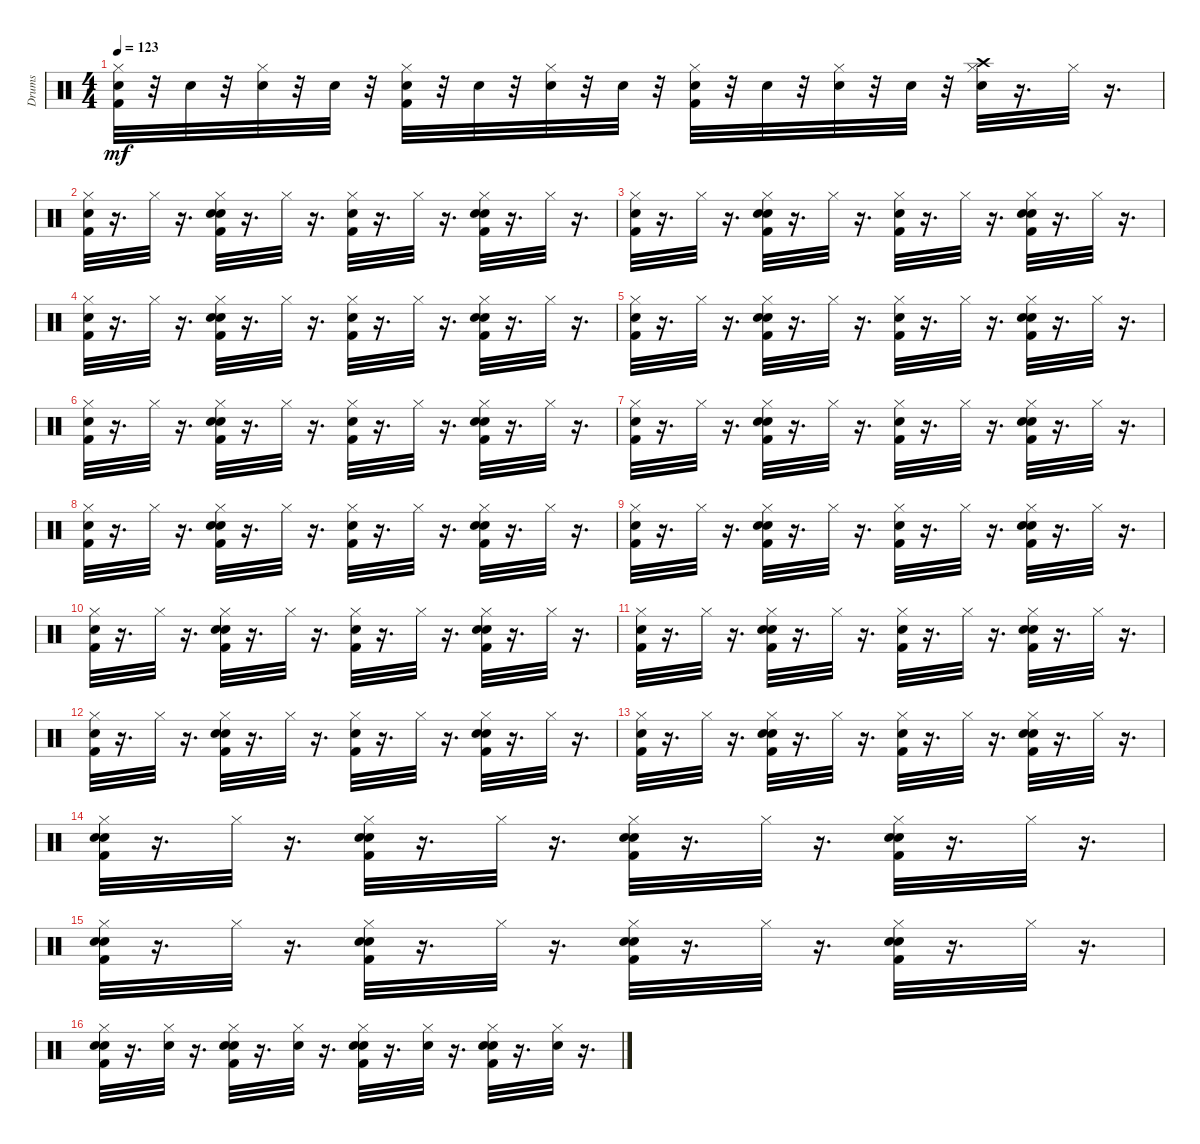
\track ("Drums" "Drums") {instrument percussion}
\staff {score}
\articulation defaults
\ts (4 4)
\tempo 123
\clef neutral
\ks c
("Kick (hit) 2" "Electric Snare (hit)" "Hi-Hat (closed)").32{dy mf} r.32 "Snare (hit) 2".32 r.32 ("Electric Snare (hit)" "Hi-Hat (closed)").32 r.32 "Snare (hit) 2".32 r.32 ("Kick (hit) 2" "Electric Snare (hit)" "Hi-Hat (closed)").32 r.32 "Snare (hit) 2".32 r.32 ("Electric Snare (hit)" "Hi-Hat (closed)").32 r.32 "Snare (hit) 2".32 r.32 ("Kick (hit) 2" "Electric Snare (hit)" "Hi-Hat (closed)").32 r.32 "Snare (hit) 2".32 r.32 ("Electric Snare (hit)" "Hi-Hat (closed)").32 r.32 "Snare (hit) 2".32 r.32 ("Hand Clap (hit)" "Hi-Hat (closed)" "Crash high (hit)").32 r.16{d} "Hi-Hat (closed)".32 r.16{d} |
("Kick (hit) 2" "Hand Clap (hit)" "Hi-Hat (closed)").32 r.16{d} "Hi-Hat (closed)".32 r.16{d} ("Kick (hit) 2" "Snare (hit) 2" "Hand Clap (hit)" "Hi-Hat (closed)").32 r.16{d} "Hi-Hat (closed)".32 r.16{d} ("Kick (hit) 2" "Hand Clap (hit)" "Hi-Hat (closed)").32 r.16{d} "Hi-Hat (closed)".32 r.16{d} ("Kick (hit) 2" "Snare (hit) 2" "Hand Clap (hit)" "Hi-Hat (closed)").32 r.16{d} "Hi-Hat (closed)".32 r.16{d} |
("Kick (hit) 2" "Hand Clap (hit)" "Hi-Hat (closed)").32 r.16{d} "Hi-Hat (closed)".32 r.16{d} ("Kick (hit) 2" "Snare (hit) 2" "Hand Clap (hit)" "Hi-Hat (closed)").32 r.16{d} "Hi-Hat (closed)".32 r.16{d} ("Kick (hit) 2" "Hand Clap (hit)" "Hi-Hat (closed)").32 r.16{d} "Hi-Hat (closed)".32 r.16{d} ("Kick (hit) 2" "Snare (hit) 2" "Hand Clap (hit)" "Hi-Hat (closed)").32 r.16{d} "Hi-Hat (closed)".32 r.16{d} |
("Kick (hit) 2" "Hand Clap (hit)" "Hi-Hat (closed)").32 r.16{d} "Hi-Hat (closed)".32 r.16{d} ("Kick (hit) 2" "Snare (hit) 2" "Hand Clap (hit)" "Hi-Hat (closed)").32 r.16{d} "Hi-Hat (closed)".32 r.16{d} ("Kick (hit) 2" "Hand Clap (hit)" "Hi-Hat (closed)").32 r.16{d} "Hi-Hat (closed)".32 r.16{d} ("Kick (hit) 2" "Snare (hit) 2" "Hand Clap (hit)" "Hi-Hat (closed)").32 r.16{d} "Hi-Hat (closed)".32 r.16{d} |
("Kick (hit) 2" "Hand Clap (hit)" "Hi-Hat (closed)").32 r.16{d} "Hi-Hat (closed)".32 r.16{d} ("Kick (hit) 2" "Snare (hit) 2" "Hand Clap (hit)" "Hi-Hat (closed)").32 r.16{d} "Hi-Hat (closed)".32 r.16{d} ("Kick (hit) 2" "Hand Clap (hit)" "Hi-Hat (closed)").32 r.16{d} "Hi-Hat (closed)".32 r.16{d} ("Kick (hit) 2" "Snare (hit) 2" "Hand Clap (hit)" "Hi-Hat (closed)").32 r.16{d} "Hi-Hat (closed)".32 r.16{d} |
("Kick (hit) 2" "Hand Clap (hit)" "Hi-Hat (closed)").32 r.16{d} "Hi-Hat (closed)".32 r.16{d} ("Kick (hit) 2" "Snare (hit) 2" "Hand Clap (hit)" "Hi-Hat (closed)").32 r.16{d} "Hi-Hat (closed)".32 r.16{d} ("Kick (hit) 2" "Hand Clap (hit)" "Hi-Hat (closed)").32 r.16{d} "Hi-Hat (closed)".32 r.16{d} ("Kick (hit) 2" "Snare (hit) 2" "Hand Clap (hit)" "Hi-Hat (closed)").32 r.16{d} "Hi-Hat (closed)".32 r.16{d} |
("Kick (hit) 2" "Hand Clap (hit)" "Hi-Hat (closed)").32 r.16{d} "Hi-Hat (closed)".32 r.16{d} ("Kick (hit) 2" "Snare (hit) 2" "Hand Clap (hit)" "Hi-Hat (closed)").32 r.16{d} "Hi-Hat (closed)".32 r.16{d} ("Kick (hit) 2" "Hand Clap (hit)" "Hi-Hat (closed)").32 r.16{d} "Hi-Hat (closed)".32 r.16{d} ("Kick (hit) 2" "Snare (hit) 2" "Hand Clap (hit)" "Hi-Hat (closed)").32 r.16{d} "Hi-Hat (closed)".32 r.16{d} |
("Kick (hit) 2" "Hand Clap (hit)" "Hi-Hat (closed)").32 r.16{d} "Hi-Hat (closed)".32 r.16{d} ("Kick (hit) 2" "Snare (hit) 2" "Hand Clap (hit)" "Hi-Hat (closed)").32 r.16{d} "Hi-Hat (closed)".32 r.16{d} ("Kick (hit) 2" "Hand Clap (hit)" "Hi-Hat (closed)").32 r.16{d} "Hi-Hat (closed)".32 r.16{d} ("Kick (hit) 2" "Snare (hit) 2" "Hand Clap (hit)" "Hi-Hat (closed)").32 r.16{d} "Hi-Hat (closed)".32 r.16{d} |
("Kick (hit) 2" "Hand Clap (hit)" "Hi-Hat (closed)").32 r.16{d} "Hi-Hat (closed)".32 r.16{d} ("Kick (hit) 2" "Snare (hit) 2" "Hand Clap (hit)" "Hi-Hat (closed)").32 r.16{d} "Hi-Hat (closed)".32 r.16{d} ("Kick (hit) 2" "Hand Clap (hit)" "Hi-Hat (closed)").32 r.16{d} "Hi-Hat (closed)".32 r.16{d} ("Kick (hit) 2" "Snare (hit) 2" "Hand Clap (hit)" "Hi-Hat (closed)").32 r.16{d} "Hi-Hat (closed)".32 r.16{d} |
("Kick (hit) 2" "Hand Clap (hit)" "Hi-Hat (closed)").32 r.16{d} "Hi-Hat (closed)".32 r.16{d} ("Kick (hit) 2" "Snare (hit) 2" "Hand Clap (hit)" "Hi-Hat (closed)").32 r.16{d} "Hi-Hat (closed)".32 r.16{d} ("Kick (hit) 2" "Hand Clap (hit)" "Hi-Hat (closed)").32 r.16{d} "Hi-Hat (closed)".32 r.16{d} ("Kick (hit) 2" "Snare (hit) 2" "Hand Clap (hit)" "Hi-Hat (closed)").32 r.16{d} "Hi-Hat (closed)".32 r.16{d} |
("Kick (hit) 2" "Hand Clap (hit)" "Hi-Hat (closed)").32 r.16{d} "Hi-Hat (closed)".32 r.16{d} ("Kick (hit) 2" "Snare (hit) 2" "Hand Clap (hit)" "Hi-Hat (closed)").32 r.16{d} "Hi-Hat (closed)".32 r.16{d} ("Kick (hit) 2" "Hand Clap (hit)" "Hi-Hat (closed)").32 r.16{d} "Hi-Hat (closed)".32 r.16{d} ("Kick (hit) 2" "Snare (hit) 2" "Hand Clap (hit)" "Hi-Hat (closed)").32 r.16{d} "Hi-Hat (closed)".32 r.16{d} |
("Kick (hit) 2" "Hand Clap (hit)" "Hi-Hat (closed)").32 r.16{d} "Hi-Hat (closed)".32 r.16{d} ("Kick (hit) 2" "Snare (hit) 2" "Hand Clap (hit)" "Hi-Hat (closed)").32 r.16{d} "Hi-Hat (closed)".32 r.16{d} ("Kick (hit) 2" "Hand Clap (hit)" "Hi-Hat (closed)").32 r.16{d} "Hi-Hat (closed)".32 r.16{d} ("Kick (hit) 2" "Snare (hit) 2" "Hand Clap (hit)" "Hi-Hat (closed)").32 r.16{d} "Hi-Hat (closed)".32 r.16{d} |
("Kick (hit) 2" "Hand Clap (hit)" "Hi-Hat (closed)").32 r.16{d} "Hi-Hat (closed)".32 r.16{d} ("Kick (hit) 2" "Snare (hit) 2" "Hand Clap (hit)" "Hi-Hat (closed)").32 r.16{d} "Hi-Hat (closed)".32 r.16{d} ("Kick (hit) 2" "Hand Clap (hit)" "Hi-Hat (closed)").32 r.16{d} "Hi-Hat (closed)".32 r.16{d} ("Kick (hit) 2" "Snare (hit) 2" "Hand Clap (hit)" "Hi-Hat (closed)").32 r.16{d} "Hi-Hat (closed)".32 r.16{d} |
("Kick (hit) 2" "Hand Clap (hit)" "Electric Snare (hit)" "Hi-Hat (closed)").32 r.16{d} "Hi-Hat (closed)".32 r.16{d} ("Kick (hit) 2" "Hand Clap (hit)" "Electric Snare (hit)" "Hi-Hat (closed)").32 r.16{d} "Hi-Hat (closed)".32 r.16{d} ("Kick (hit) 2" "Hand Clap (hit)" "Electric Snare (hit)" "Hi-Hat (closed)").32 r.16{d} "Hi-Hat (closed)".32 r.16{d} ("Kick (hit) 2" "Hand Clap (hit)" "Electric Snare (hit)" "Hi-Hat (closed)").32 r.16{d} "Hi-Hat (closed)".32 r.16{d} |
("Kick (hit) 2" "Hand Clap (hit)" "Electric Snare (hit)" "Hi-Hat (closed)").32 r.16{d} "Hi-Hat (closed)".32 r.16{d} ("Kick (hit) 2" "Hand Clap (hit)" "Electric Snare (hit)" "Hi-Hat (closed)").32 r.16{d} "Hi-Hat (closed)".32 r.16{d} ("Kick (hit) 2" "Hand Clap (hit)" "Electric Snare (hit)" "Hi-Hat (closed)").32 r.16{d} "Hi-Hat (closed)".32 r.16{d} ("Kick (hit) 2" "Hand Clap (hit)" "Electric Snare (hit)" "Hi-Hat (closed)").32 r.16{d} "Hi-Hat (closed)".32 r.16{d} |
("Kick (hit) 2" "Hand Clap (hit)" "Electric Snare (hit)" "Hi-Hat (closed)").32 r.16{d} ("Snare (hit) 2" "Hi-Hat (closed)").32 r.16{d} ("Kick (hit) 2" "Hand Clap (hit)" "Electric Snare (hit)" "Hi-Hat (closed)").32 r.16{d} ("Snare (hit) 2" "Hi-Hat (closed)").32 r.16{d} ("Kick (hit) 2" "Hand Clap (hit)" "Electric Snare (hit)" "Hi-Hat (closed)").32 r.16{d} ("Snare (hit) 2" "Hi-Hat (closed)").32 r.16{d} ("Kick (hit) 2" "Hand Clap (hit)" "Electric Snare (hit)" "Hi-Hat (closed)").32 r.16{d} ("Snare (hit) 2" "Hi-Hat (closed)").32 r.16{d}
